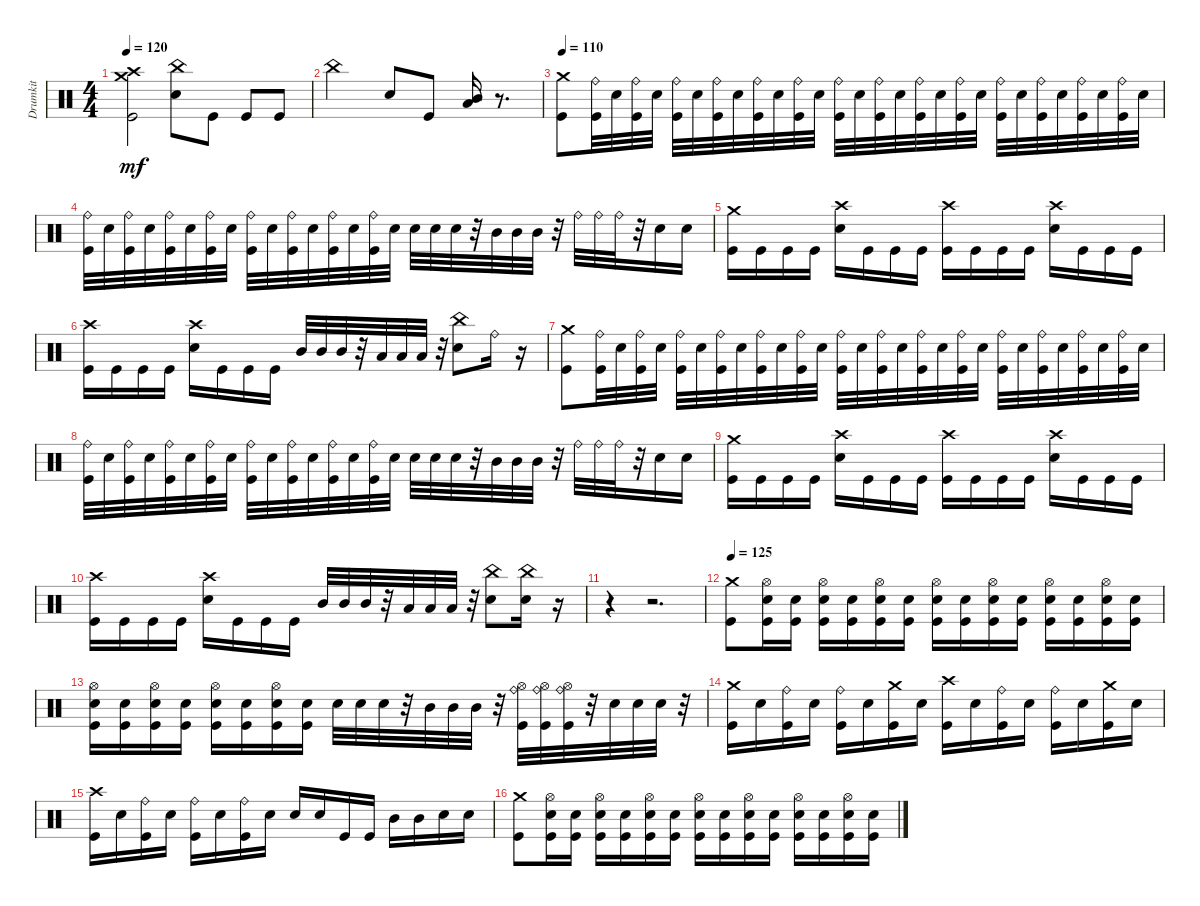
\track ("Drumkit" "Drumkit") {instrument percussion}
\staff {score}
\articulation defaults
\ts (4 4)
\tempo 120
\clef neutral
\ks c
("Kick (hit)" "Crash high (hit)" "Crash medium (hit)").2{dy mf} ("Snare (hit) 2" "China (hit)").8 "Kick (hit)".8 "Kick (hit)".8 "Kick (hit)".8 |
"China (hit)".2 "Snare (hit) 2".8 "Kick (hit)".8 ("Low Floor Tom (hit)" "Mid Tom (hit)").16 r.8{d} |
\tempo 110
("Kick (hit)" "Crash medium (hit)").8 ("Kick (hit)" "Ride (bell)").32 "Snare (hit) 2".32 ("Kick (hit)" "Ride (bell)").32 "Snare (hit) 2".32 ("Kick (hit)" "Ride (bell)").32 "Snare (hit) 2".32 ("Kick (hit)" "Ride (bell)").32 "Snare (hit) 2".32 ("Kick (hit)" "Ride (bell)").32 "Snare (hit) 2".32 ("Kick (hit)" "Ride (bell)").32 "Snare (hit) 2".32 ("Kick (hit)" "Ride (bell)").32 "Snare (hit) 2".32 ("Kick (hit)" "Ride (bell)").32 "Snare (hit) 2".32 ("Kick (hit)" "Ride (bell)").32 "Snare (hit) 2".32 ("Kick (hit)" "Ride (bell)").32 "Snare (hit) 2".32 ("Kick (hit)" "Ride (bell)").32 "Snare (hit) 2".32 ("Kick (hit)" "Ride (bell)").32 "Snare (hit) 2".32 ("Kick (hit)" "Ride (bell)").32 "Snare (hit) 2".32 ("Kick (hit)" "Ride (bell)").32 "Snare (hit) 2".32 |
("Kick (hit)" "Ride (bell)").32 "Snare (hit) 2".32 ("Kick (hit)" "Ride (bell)").32 "Snare (hit) 2".32 ("Kick (hit)" "Ride (bell)").32 "Snare (hit) 2".32 ("Kick (hit)" "Ride (bell)").32 "Snare (hit) 2".32 ("Kick (hit)" "Ride (bell)").32 "Snare (hit) 2".32 ("Kick (hit)" "Ride (bell)").32 "Snare (hit) 2".32 ("Kick (hit)" "Ride (bell)").32 "Snare (hit) 2".32 ("Kick (hit)" "Ride (bell)").32 "Snare (hit) 2".32 "Snare (hit) 2".32 "Snare (hit) 2".32 "Snare (hit) 2".32 r.32 "Mid Tom (hit)".32 "Mid Tom (hit)".32 "Mid Tom (hit)".32 r.32 "Ride (bell)".32 "Ride (bell)".32 "Ride (bell)".32 r.32 "Snare (hit) 2".16 "Snare (hit) 2".16 |
("Kick (hit)" "Crash medium (hit)").16 "Kick (hit)".16 "Kick (hit)".16 "Kick (hit)".16 ("Snare (hit) 2" "Crash high (hit)").16 "Kick (hit)".16 "Kick (hit)".16 "Kick (hit)".16 ("Kick (hit)" "Crash high (hit)").16 "Kick (hit)".16 "Kick (hit)".16 "Kick (hit)".16 ("Snare (hit) 2" "Crash high (hit)").16 "Kick (hit)".16 "Kick (hit)".16 "Kick (hit)".16 |
("Kick (hit)" "Crash high (hit)").16 "Kick (hit)".16 "Kick (hit)".16 "Kick (hit)".16 ("Snare (hit) 2" "Crash high (hit)").16 "Kick (hit)".16 "Kick (hit)".16 "Kick (hit)".16 "Mid Tom (hit)".32 "Mid Tom (hit)".32 "Mid Tom (hit)".32 r.32 "Low Tom (hit)".32 "Low Tom (hit)".32 "Low Tom (hit)".32 r.32 ("Snare (hit) 2" "China (hit)").8 "Ride (bell)".16 r.16 |
("Kick (hit)" "Crash medium (hit)").8 ("Kick (hit)" "Ride (bell)").32 "Snare (hit) 2".32 ("Kick (hit)" "Ride (bell)").32 "Snare (hit) 2".32 ("Kick (hit)" "Ride (bell)").32 "Snare (hit) 2".32 ("Kick (hit)" "Ride (bell)").32 "Snare (hit) 2".32 ("Kick (hit)" "Ride (bell)").32 "Snare (hit) 2".32 ("Kick (hit)" "Ride (bell)").32 "Snare (hit) 2".32 ("Kick (hit)" "Ride (bell)").32 "Snare (hit) 2".32 ("Kick (hit)" "Ride (bell)").32 "Snare (hit) 2".32 ("Kick (hit)" "Ride (bell)").32 "Snare (hit) 2".32 ("Kick (hit)" "Ride (bell)").32 "Snare (hit) 2".32 ("Kick (hit)" "Ride (bell)").32 "Snare (hit) 2".32 ("Kick (hit)" "Ride (bell)").32 "Snare (hit) 2".32 ("Kick (hit)" "Ride (bell)").32 "Snare (hit) 2".32 ("Kick (hit)" "Ride (bell)").32 "Snare (hit) 2".32 |
("Kick (hit)" "Ride (bell)").32 "Snare (hit) 2".32 ("Kick (hit)" "Ride (bell)").32 "Snare (hit) 2".32 ("Kick (hit)" "Ride (bell)").32 "Snare (hit) 2".32 ("Kick (hit)" "Ride (bell)").32 "Snare (hit) 2".32 ("Kick (hit)" "Ride (bell)").32 "Snare (hit) 2".32 ("Kick (hit)" "Ride (bell)").32 "Snare (hit) 2".32 ("Kick (hit)" "Ride (bell)").32 "Snare (hit) 2".32 ("Kick (hit)" "Ride (bell)").32 "Snare (hit) 2".32 "Snare (hit) 2".32 "Snare (hit) 2".32 "Snare (hit) 2".32 r.32 "Mid Tom (hit)".32 "Mid Tom (hit)".32 "Mid Tom (hit)".32 r.32 "Ride (bell)".32 "Ride (bell)".32 "Ride (bell)".32 r.32 "Snare (hit) 2".16 "Snare (hit) 2".16 |
("Kick (hit)" "Crash medium (hit)").16 "Kick (hit)".16 "Kick (hit)".16 "Kick (hit)".16 ("Snare (hit) 2" "Crash high (hit)").16 "Kick (hit)".16 "Kick (hit)".16 "Kick (hit)".16 ("Kick (hit)" "Crash high (hit)").16 "Kick (hit)".16 "Kick (hit)".16 "Kick (hit)".16 ("Snare (hit) 2" "Crash high (hit)").16 "Kick (hit)".16 "Kick (hit)".16 "Kick (hit)".16 |
("Kick (hit)" "Crash high (hit)").16 "Kick (hit)".16 "Kick (hit)".16 "Kick (hit)".16 ("Snare (hit) 2" "Crash high (hit)").16 "Kick (hit)".16 "Kick (hit)".16 "Kick (hit)".16 "Mid Tom (hit)".32 "Mid Tom (hit)".32 "Mid Tom (hit)".32 r.32 "Low Tom (hit)".32 "Low Tom (hit)".32 "Low Tom (hit)".32 r.32 ("Snare (hit) 2" "China (hit)").8 ("Snare (hit) 2" "China (hit)").16 r.16 |
r.4 r.2{d} |
\tempo 125
("Kick (hit)" "Crash medium (hit)").8 ("Kick (hit)" "Snare (hit) 2" "Hi-Hat (open)").16 ("Kick (hit)" "Snare (hit) 2").16 ("Kick (hit)" "Snare (hit) 2" "Hi-Hat (open)").16 ("Kick (hit)" "Snare (hit) 2").16 ("Kick (hit)" "Snare (hit) 2" "Hi-Hat (open)").16 ("Kick (hit)" "Snare (hit) 2").16 ("Kick (hit)" "Snare (hit) 2" "Hi-Hat (open)").16 ("Kick (hit)" "Snare (hit) 2").16 ("Kick (hit)" "Snare (hit) 2" "Hi-Hat (open)").16 ("Kick (hit)" "Snare (hit) 2").16 ("Kick (hit)" "Snare (hit) 2" "Hi-Hat (open)").16 ("Kick (hit)" "Snare (hit) 2").16 ("Kick (hit)" "Snare (hit) 2" "Hi-Hat (open)").16 ("Kick (hit)" "Snare (hit) 2").16 |
("Kick (hit)" "Snare (hit) 2" "Hi-Hat (open)").16 ("Kick (hit)" "Snare (hit) 2").16 ("Kick (hit)" "Snare (hit) 2" "Hi-Hat (open)").16 ("Kick (hit)" "Snare (hit) 2").16 ("Kick (hit)" "Snare (hit) 2" "Hi-Hat (open)").16 ("Kick (hit)" "Snare (hit) 2").16 ("Kick (hit)" "Snare (hit) 2" "Hi-Hat (open)").16 ("Kick (hit)" "Snare (hit) 2").16 "Snare (hit) 2".32 "Snare (hit) 2".32 "Snare (hit) 2".32 r.32 "Mid Tom (hit)".32 "Mid Tom (hit)".32 "Mid Tom (hit)".32 r.32 ("Kick (hit)" "Ride (bell)" "Hi-Hat (open)").32 ("Kick (hit)" "Ride (bell)" "Hi-Hat (open)").32 ("Kick (hit)" "Ride (bell)" "Hi-Hat (open)").32 r.32 "Snare (hit) 2".32 "Snare (hit) 2".32 "Snare (hit) 2".32 r.32 |
("Kick (hit)" "Crash medium (hit)").16 "Snare (hit) 2".16 ("Kick (hit)" "Ride (bell)").16 "Snare (hit) 2".16 ("Kick (hit)" "Ride (bell)").16 "Snare (hit) 2".16 ("Kick (hit)" "Crash medium (hit)").16 "Snare (hit) 2".16 ("Kick (hit)" "Crash high (hit)").16 "Snare (hit) 2".16 ("Kick (hit)" "Ride (bell)").16 "Snare (hit) 2".16 ("Kick (hit)" "Ride (bell)").16 "Snare (hit) 2".16 ("Kick (hit)" "Crash medium (hit)").16 "Snare (hit) 2".16 |
("Kick (hit)" "Crash high (hit)").16 "Snare (hit) 2".16 ("Kick (hit)" "Ride (bell)").16 "Snare (hit) 2".16 ("Kick (hit)" "Ride (bell)").16 "Snare (hit) 2".16 ("Kick (hit)" "Ride (bell)").16 "Snare (hit) 2".16 "Snare (hit) 2".16 "Snare (hit) 2".16 "Kick (hit)".16 "Kick (hit)".16 "Mid Tom (hit)".16 "Mid Tom (hit)".16 "Snare (hit) 2".16 "Snare (hit) 2".16 |
("Kick (hit)" "Crash medium (hit)").8 ("Kick (hit)" "Snare (hit) 2" "Hi-Hat (open)").16 ("Kick (hit)" "Snare (hit) 2").16 ("Kick (hit)" "Snare (hit) 2" "Hi-Hat (open)").16 ("Kick (hit)" "Snare (hit) 2").16 ("Kick (hit)" "Snare (hit) 2" "Hi-Hat (open)").16 ("Kick (hit)" "Snare (hit) 2").16 ("Kick (hit)" "Snare (hit) 2" "Hi-Hat (open)").16 ("Kick (hit)" "Snare (hit) 2").16 ("Kick (hit)" "Snare (hit) 2" "Hi-Hat (open)").16 ("Kick (hit)" "Snare (hit) 2").16 ("Kick (hit)" "Snare (hit) 2" "Hi-Hat (open)").16 ("Kick (hit)" "Snare (hit) 2").16 ("Kick (hit)" "Snare (hit) 2" "Hi-Hat (open)").16 ("Kick (hit)" "Snare (hit) 2").16
